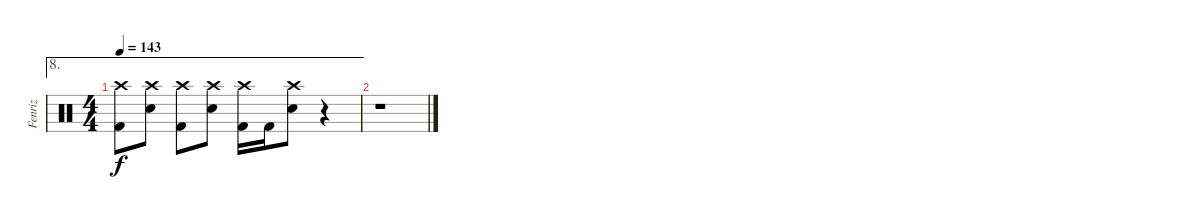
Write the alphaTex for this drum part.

\track ("Fenriz" "Fenriz") {instrument percussion}
\staff {score}
\articulation defaults
\ae 8
\ts (4 4)
\tempo 143
\clef neutral
\ks c
("Crash high (hit)" "Kick (hit) 2").8{dy f} ("Crash high (hit)" "Electric Snare (hit)").8 ("Crash high (hit)" "Kick (hit) 2").8 ("Crash high (hit)" "Electric Snare (hit)").8 ("Crash high (hit)" "Kick (hit) 2").16 "Kick (hit) 2".16 ("Crash high (hit)" "Electric Snare (hit)").8 r.4 |
r.1
